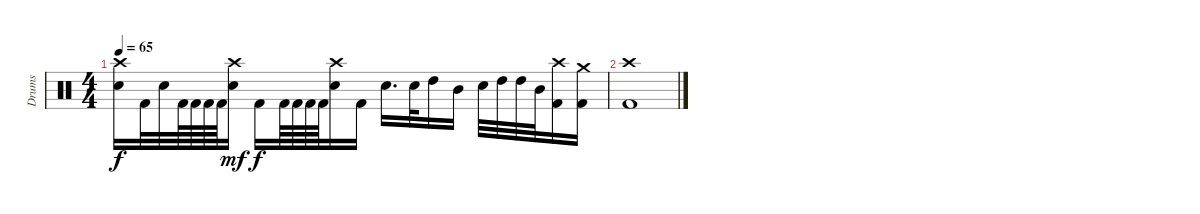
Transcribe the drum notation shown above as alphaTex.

\track ("Drums" "Drums") {instrument percussion}
\staff {score}
\articulation defaults
\ts (4 4)
\tempo 65
\clef neutral
\ks c
("Crash high (hit)" "Electric Snare (hit)").16{dy f} "Kick (hit) 2".32 "Electric Snare (hit)".32 "Kick (hit) 2".64 "Kick (hit) 2".64 "Kick (hit) 2".64 "Kick (hit) 2".64 ("Crash high (hit)" "Electric Snare (hit)").16{dy mf} "Kick (hit) 2".16{dy f} "Kick (hit) 2".64 "Kick (hit) 2".64 "Kick (hit) 2".64 "Kick (hit) 2".64 ("Crash high (hit)" "Electric Snare (hit)").16 "Kick (hit) 2".16 "Electric Snare (hit)".16{d} "Electric Snare (hit)".32 "High Tom (hit)".16 "Mid Tom (hit)".16 "Electric Snare (hit)".32 "High Tom (hit)".32 "High Tom (hit)".32 "Mid Tom (hit)".32 ("Crash high (hit)" "Kick (hit) 2").16 ("Crash medium (hit)" "Kick (hit) 2").16 |
("Crash high (hit)" "Kick (hit) 2").1
